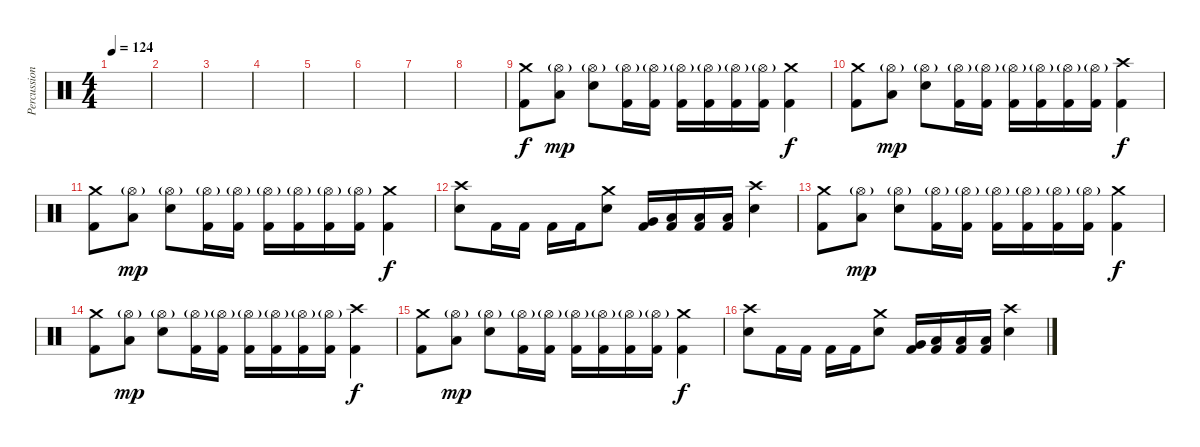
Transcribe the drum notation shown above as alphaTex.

\track ("Percussions" "Percussion") {instrument percussion}
\staff {score}
\articulation defaults
\ts (4 4)
\tempo 124
\clef neutral
\ks c
|
|
|
|
|
|
|
|
("Crash medium (hit)" "Kick (hit) 2").8 ("Hi-Hat (open)"{g} "Low Floor Tom (hit)").8{dy mp} ("Hi-Hat (open)"{g} "Electric Snare (hit)").8 ("Hi-Hat (open)"{g} "Kick (hit) 2").16 ("Hi-Hat (open)"{g} "Kick (hit) 2").16 ("Hi-Hat (open)"{g} "Kick (hit) 2").16 ("Hi-Hat (open)"{g} "Kick (hit) 2").16 ("Hi-Hat (open)"{g} "Kick (hit) 2").16 ("Hi-Hat (open)"{g} "Kick (hit) 2").16 ("Crash medium (hit)" "Kick (hit) 2").4{dy f} |
("Crash medium (hit)" "Kick (hit) 2").8 ("Hi-Hat (open)"{g} "Low Floor Tom (hit)").8{dy mp} ("Hi-Hat (open)"{g} "Electric Snare (hit)").8 ("Hi-Hat (open)"{g} "Kick (hit) 2").16 ("Hi-Hat (open)"{g} "Kick (hit) 2").16 ("Hi-Hat (open)"{g} "Kick (hit) 2").16 ("Hi-Hat (open)"{g} "Kick (hit) 2").16 ("Hi-Hat (open)"{g} "Kick (hit) 2").16 ("Hi-Hat (open)"{g} "Kick (hit) 2").16 ("Crash high (hit)" "Kick (hit) 2").4{dy f} |
("Crash medium (hit)" "Kick (hit) 2").8 ("Hi-Hat (open)"{g} "Low Floor Tom (hit)").8{dy mp} ("Hi-Hat (open)"{g} "Electric Snare (hit)").8 ("Hi-Hat (open)"{g} "Kick (hit) 2").16 ("Hi-Hat (open)"{g} "Kick (hit) 2").16 ("Hi-Hat (open)"{g} "Kick (hit) 2").16 ("Hi-Hat (open)"{g} "Kick (hit) 2").16 ("Hi-Hat (open)"{g} "Kick (hit) 2").16 ("Hi-Hat (open)"{g} "Kick (hit) 2").16 ("Crash medium (hit)" "Kick (hit) 2").4{dy f} |
("Crash high (hit)" "Electric Snare (hit)").8 "Kick (hit) 2".16 "Kick (hit) 2".16 "Kick (hit) 2".16 "Kick (hit) 2".16 ("Crash medium (hit)" "Electric Snare (hit)").8 ("Very Low Tom (hit)" "Kick (hit) 2").16 ("Low Floor Tom (hit)" "Kick (hit) 2").16 ("Low Tom (hit)" "Kick (hit) 2").16 ("Low Floor Tom (hit)" "Kick (hit) 2").16 ("Crash high (hit)" "Electric Snare (hit)").4 |
("Crash medium (hit)" "Kick (hit) 2").8 ("Hi-Hat (open)"{g} "Low Floor Tom (hit)").8{dy mp} ("Hi-Hat (open)"{g} "Electric Snare (hit)").8 ("Hi-Hat (open)"{g} "Kick (hit) 2").16 ("Hi-Hat (open)"{g} "Kick (hit) 2").16 ("Hi-Hat (open)"{g} "Kick (hit) 2").16 ("Hi-Hat (open)"{g} "Kick (hit) 2").16 ("Hi-Hat (open)"{g} "Kick (hit) 2").16 ("Hi-Hat (open)"{g} "Kick (hit) 2").16 ("Crash medium (hit)" "Kick (hit) 2").4{dy f} |
("Crash medium (hit)" "Kick (hit) 2").8 ("Hi-Hat (open)"{g} "Low Floor Tom (hit)").8{dy mp} ("Hi-Hat (open)"{g} "Electric Snare (hit)").8 ("Hi-Hat (open)"{g} "Kick (hit) 2").16 ("Hi-Hat (open)"{g} "Kick (hit) 2").16 ("Hi-Hat (open)"{g} "Kick (hit) 2").16 ("Hi-Hat (open)"{g} "Kick (hit) 2").16 ("Hi-Hat (open)"{g} "Kick (hit) 2").16 ("Hi-Hat (open)"{g} "Kick (hit) 2").16 ("Crash high (hit)" "Kick (hit) 2").4{dy f} |
("Crash medium (hit)" "Kick (hit) 2").8 ("Hi-Hat (open)"{g} "Low Floor Tom (hit)").8{dy mp} ("Hi-Hat (open)"{g} "Electric Snare (hit)").8 ("Hi-Hat (open)"{g} "Kick (hit) 2").16 ("Hi-Hat (open)"{g} "Kick (hit) 2").16 ("Hi-Hat (open)"{g} "Kick (hit) 2").16 ("Hi-Hat (open)"{g} "Kick (hit) 2").16 ("Hi-Hat (open)"{g} "Kick (hit) 2").16 ("Hi-Hat (open)"{g} "Kick (hit) 2").16 ("Crash medium (hit)" "Kick (hit) 2").4{dy f} |
("Crash high (hit)" "Electric Snare (hit)").8 "Kick (hit) 2".16 "Kick (hit) 2".16 "Kick (hit) 2".16 "Kick (hit) 2".16 ("Crash medium (hit)" "Electric Snare (hit)").8 ("Very Low Tom (hit)" "Kick (hit) 2").16 ("Low Floor Tom (hit)" "Kick (hit) 2").16 ("Low Tom (hit)" "Kick (hit) 2").16 ("Low Floor Tom (hit)" "Kick (hit) 2").16 ("Crash high (hit)" "Electric Snare (hit)").4
